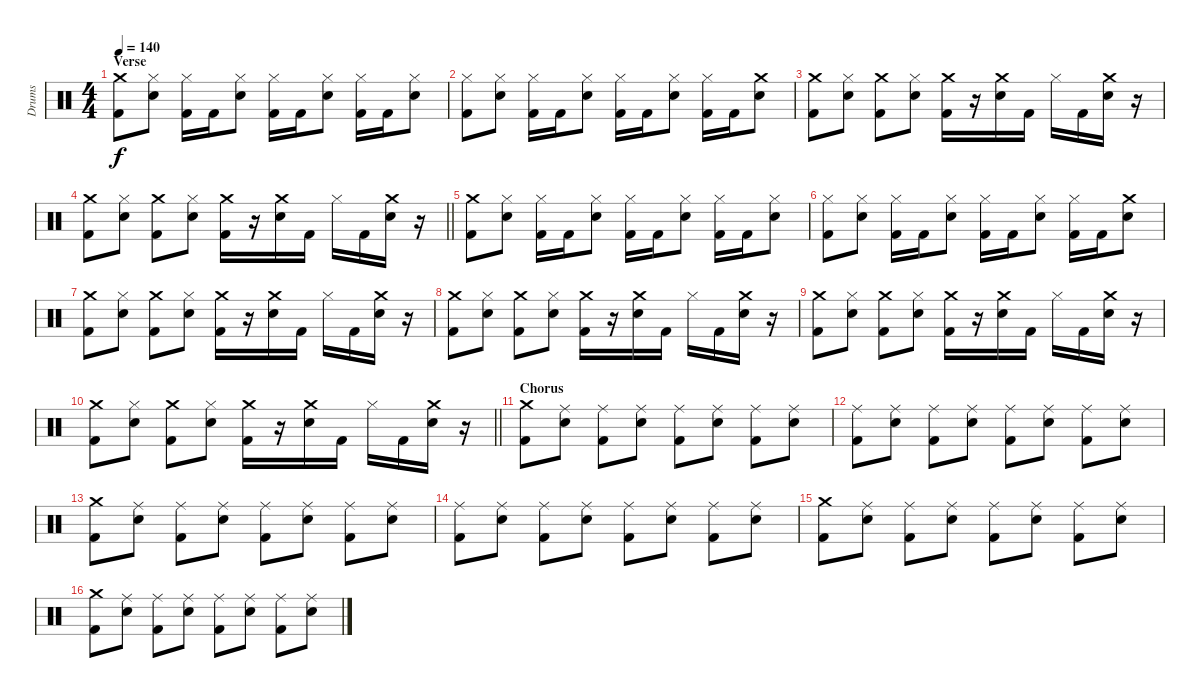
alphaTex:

\track ("Drums" "Drums") {instrument percussion}
\staff {score}
\articulation defaults
\ts (4 4)
\section ("" "Verse")
\tempo 140
\clef neutral
\ks c
("Crash medium (hit)" "Kick (hit) 2").8{dy f} ("Hi-Hat (closed)" "Snare (hit) 2").8 ("Hi-Hat (closed)" "Kick (hit) 2").16 "Kick (hit) 2".16 ("Hi-Hat (closed)" "Snare (hit) 2").8 ("Hi-Hat (closed)" "Kick (hit) 2").16 "Kick (hit) 2".16 ("Hi-Hat (closed)" "Snare (hit) 2").8 ("Hi-Hat (closed)" "Kick (hit) 2").16 "Kick (hit) 2".16 ("Hi-Hat (closed)" "Snare (hit) 2").8 |
("Hi-Hat (closed)" "Kick (hit) 2").8 ("Hi-Hat (closed)" "Snare (hit) 2").8 ("Hi-Hat (closed)" "Kick (hit) 2").16 "Kick (hit) 2".16 ("Hi-Hat (closed)" "Snare (hit) 2").8 ("Hi-Hat (closed)" "Kick (hit) 2").16 "Kick (hit) 2".16 ("Hi-Hat (closed)" "Snare (hit) 2").8 ("Hi-Hat (closed)" "Kick (hit) 2").16 "Kick (hit) 2".16 ("Crash medium (hit)" "Snare (hit) 2").8 |
("Crash medium (hit)" "Kick (hit) 2").8 ("Hi-Hat (closed)" "Snare (hit) 2").8 ("Crash medium (hit)" "Kick (hit) 2").8 ("Hi-Hat (closed)" "Snare (hit) 2").8 ("Crash medium (hit)" "Kick (hit) 2").16 r.16 ("Crash medium (hit)" "Snare (hit) 2").16 "Kick (hit) 2".16 "Hi-Hat (closed)".16 "Kick (hit) 2".16 ("Crash medium (hit)" "Snare (hit) 2").16 r.16 |
\barLineRight lightlight
("Crash medium (hit)" "Kick (hit) 2").8 ("Hi-Hat (closed)" "Snare (hit) 2").8 ("Crash medium (hit)" "Kick (hit) 2").8 ("Hi-Hat (closed)" "Snare (hit) 2").8 ("Crash medium (hit)" "Kick (hit) 2").16 r.16 ("Crash medium (hit)" "Snare (hit) 2").16 "Kick (hit) 2".16 "Hi-Hat (closed)".16 "Kick (hit) 2".16 ("Crash medium (hit)" "Snare (hit) 2").16 r.16 |
("Crash medium (hit)" "Kick (hit) 2").8 ("Hi-Hat (closed)" "Snare (hit) 2").8 ("Hi-Hat (closed)" "Kick (hit) 2").16 "Kick (hit) 2".16 ("Hi-Hat (closed)" "Snare (hit) 2").8 ("Hi-Hat (closed)" "Kick (hit) 2").16 "Kick (hit) 2".16 ("Hi-Hat (closed)" "Snare (hit) 2").8 ("Hi-Hat (closed)" "Kick (hit) 2").16 "Kick (hit) 2".16 ("Hi-Hat (closed)" "Snare (hit) 2").8 |
("Hi-Hat (closed)" "Kick (hit) 2").8 ("Hi-Hat (closed)" "Snare (hit) 2").8 ("Hi-Hat (closed)" "Kick (hit) 2").16 "Kick (hit) 2".16 ("Hi-Hat (closed)" "Snare (hit) 2").8 ("Hi-Hat (closed)" "Kick (hit) 2").16 "Kick (hit) 2".16 ("Hi-Hat (closed)" "Snare (hit) 2").8 ("Hi-Hat (closed)" "Kick (hit) 2").16 "Kick (hit) 2".16 ("Crash medium (hit)" "Snare (hit) 2").8 |
("Crash medium (hit)" "Kick (hit) 2").8 ("Hi-Hat (closed)" "Snare (hit) 2").8 ("Crash medium (hit)" "Kick (hit) 2").8 ("Hi-Hat (closed)" "Snare (hit) 2").8 ("Crash medium (hit)" "Kick (hit) 2").16 r.16 ("Crash medium (hit)" "Snare (hit) 2").16 "Kick (hit) 2".16 "Hi-Hat (closed)".16 "Kick (hit) 2".16 ("Crash medium (hit)" "Snare (hit) 2").16 r.16 |
("Crash medium (hit)" "Kick (hit) 2").8 ("Hi-Hat (closed)" "Snare (hit) 2").8 ("Crash medium (hit)" "Kick (hit) 2").8 ("Hi-Hat (closed)" "Snare (hit) 2").8 ("Crash medium (hit)" "Kick (hit) 2").16 r.16 ("Crash medium (hit)" "Snare (hit) 2").16 "Kick (hit) 2".16 "Hi-Hat (closed)".16 "Kick (hit) 2".16 ("Crash medium (hit)" "Snare (hit) 2").16 r.16 |
("Crash medium (hit)" "Kick (hit) 2").8 ("Hi-Hat (closed)" "Snare (hit) 2").8 ("Crash medium (hit)" "Kick (hit) 2").8 ("Hi-Hat (closed)" "Snare (hit) 2").8 ("Crash medium (hit)" "Kick (hit) 2").16 r.16 ("Crash medium (hit)" "Snare (hit) 2").16 "Kick (hit) 2".16 "Hi-Hat (closed)".16 "Kick (hit) 2".16 ("Crash medium (hit)" "Snare (hit) 2").16 r.16 |
\barLineRight lightlight
("Crash medium (hit)" "Kick (hit) 2").8 ("Hi-Hat (closed)" "Snare (hit) 2").8 ("Crash medium (hit)" "Kick (hit) 2").8 ("Hi-Hat (closed)" "Snare (hit) 2").8 ("Crash medium (hit)" "Kick (hit) 2").16 r.16 ("Crash medium (hit)" "Snare (hit) 2").16 "Kick (hit) 2".16 "Hi-Hat (closed)".16 "Kick (hit) 2".16 ("Crash medium (hit)" "Snare (hit) 2").16 r.16 |
\section ("" "Chorus")
("Crash medium (hit)" "Kick (hit) 2").8 ("Ride (middle)" "Snare (hit) 2").8 ("Ride (middle)" "Kick (hit) 2").8 ("Ride (middle)" "Snare (hit) 2").8 ("Ride (middle)" "Kick (hit) 2").8 ("Ride (middle)" "Snare (hit) 2").8 ("Ride (middle)" "Kick (hit) 2").8 ("Ride (middle)" "Snare (hit) 2").8 |
("Ride (middle)" "Kick (hit) 2").8 ("Ride (middle)" "Snare (hit) 2").8 ("Ride (middle)" "Kick (hit) 2").8 ("Ride (middle)" "Snare (hit) 2").8 ("Ride (middle)" "Kick (hit) 2").8 ("Ride (middle)" "Snare (hit) 2").8 ("Ride (middle)" "Kick (hit) 2").8 ("Ride (middle)" "Snare (hit) 2").8 |
("Crash medium (hit)" "Kick (hit) 2").8 ("Ride (middle)" "Snare (hit) 2").8 ("Ride (middle)" "Kick (hit) 2").8 ("Ride (middle)" "Snare (hit) 2").8 ("Ride (middle)" "Kick (hit) 2").8 ("Ride (middle)" "Snare (hit) 2").8 ("Ride (middle)" "Kick (hit) 2").8 ("Ride (middle)" "Snare (hit) 2").8 |
("Ride (middle)" "Kick (hit) 2").8 ("Ride (middle)" "Snare (hit) 2").8 ("Ride (middle)" "Kick (hit) 2").8 ("Ride (middle)" "Snare (hit) 2").8 ("Ride (middle)" "Kick (hit) 2").8 ("Ride (middle)" "Snare (hit) 2").8 ("Ride (middle)" "Kick (hit) 2").8 ("Ride (middle)" "Snare (hit) 2").8 |
("Crash medium (hit)" "Kick (hit) 2").8 ("Ride (middle)" "Snare (hit) 2").8 ("Ride (middle)" "Kick (hit) 2").8 ("Ride (middle)" "Snare (hit) 2").8 ("Ride (middle)" "Kick (hit) 2").8 ("Ride (middle)" "Snare (hit) 2").8 ("Ride (middle)" "Kick (hit) 2").8 ("Ride (middle)" "Snare (hit) 2").8 |
("Crash medium (hit)" "Kick (hit) 2").8 ("Ride (middle)" "Snare (hit) 2").8 ("Ride (middle)" "Kick (hit) 2").8 ("Ride (middle)" "Snare (hit) 2").8 ("Ride (middle)" "Kick (hit) 2").8 ("Ride (middle)" "Snare (hit) 2").8 ("Ride (middle)" "Kick (hit) 2").8 ("Ride (middle)" "Snare (hit) 2").8
